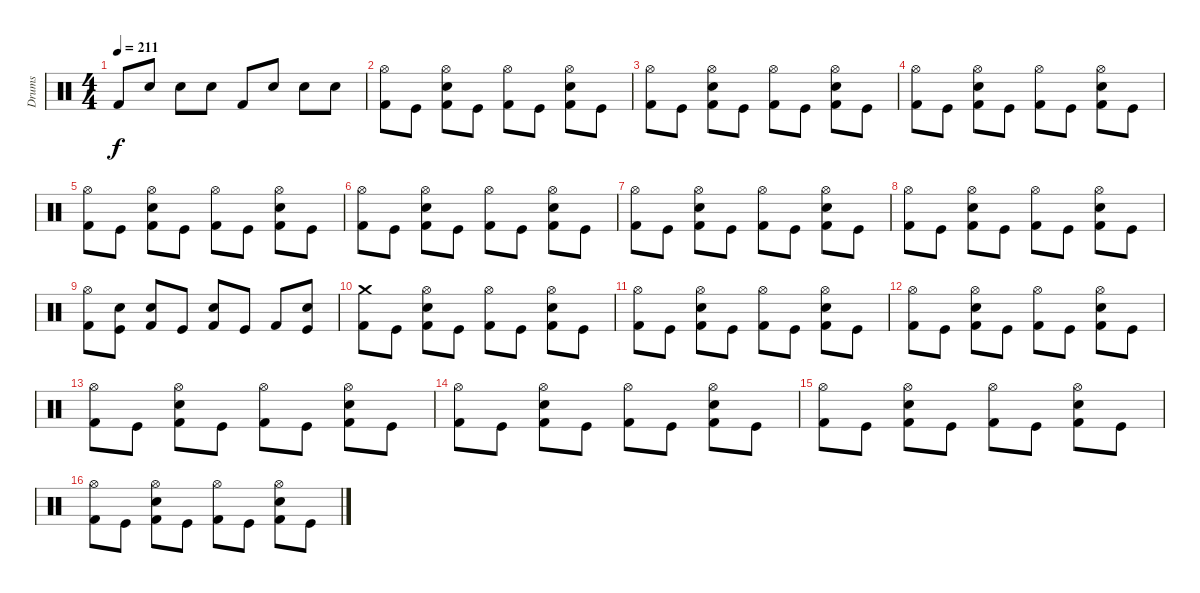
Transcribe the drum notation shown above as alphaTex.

\track ("Drums" "Drums") {instrument percussion}
\staff {score}
\articulation defaults
\ts (4 4)
\tempo 211
\clef neutral
\ks c "Kick (hit) 2".8{dy f} "Snare (hit) 2".8 "Snare (hit) 2".8 "Snare (hit) 2".8 "Kick (hit) 2".8 "Snare (hit) 2".8 "Snare (hit) 2".8 "Snare (hit) 2".8
|
("Kick (hit) 2" "Hi-Hat (open)").8 "Kick (hit)".8 ("Kick (hit) 2" "Snare (hit) 2" "Hi-Hat (open)").8 "Kick (hit)".8 ("Kick (hit) 2" "Hi-Hat (open)").8 "Kick (hit)".8 ("Kick (hit) 2" "Snare (hit) 2" "Hi-Hat (open)").8 "Kick (hit)".8 |
("Kick (hit) 2" "Hi-Hat (open)").8 "Kick (hit)".8 ("Kick (hit) 2" "Snare (hit) 2" "Hi-Hat (open)").8 "Kick (hit)".8 ("Kick (hit) 2" "Hi-Hat (open)").8 "Kick (hit)".8 ("Kick (hit) 2" "Snare (hit) 2" "Hi-Hat (open)").8 "Kick (hit)".8 |
("Kick (hit) 2" "Hi-Hat (open)").8 "Kick (hit)".8 ("Kick (hit) 2" "Snare (hit) 2" "Hi-Hat (open)").8 "Kick (hit)".8 ("Kick (hit) 2" "Hi-Hat (open)").8 "Kick (hit)".8 ("Kick (hit) 2" "Snare (hit) 2" "Hi-Hat (open)").8 "Kick (hit)".8 |
("Kick (hit) 2" "Hi-Hat (open)").8 "Kick (hit)".8 ("Kick (hit) 2" "Snare (hit) 2" "Hi-Hat (open)").8 "Kick (hit)".8 ("Kick (hit) 2" "Hi-Hat (open)").8 "Kick (hit)".8 ("Kick (hit) 2" "Snare (hit) 2" "Hi-Hat (open)").8 "Kick (hit)".8 |
("Kick (hit) 2" "Hi-Hat (open)").8 "Kick (hit)".8 ("Kick (hit) 2" "Snare (hit) 2" "Hi-Hat (open)").8 "Kick (hit)".8 ("Kick (hit) 2" "Hi-Hat (open)").8 "Kick (hit)".8 ("Kick (hit) 2" "Snare (hit) 2" "Hi-Hat (open)").8 "Kick (hit)".8 |
("Kick (hit) 2" "Hi-Hat (open)").8 "Kick (hit)".8 ("Kick (hit) 2" "Snare (hit) 2" "Hi-Hat (open)").8 "Kick (hit)".8 ("Kick (hit) 2" "Hi-Hat (open)").8 "Kick (hit)".8 ("Kick (hit) 2" "Snare (hit) 2" "Hi-Hat (open)").8 "Kick (hit)".8 |
("Kick (hit) 2" "Hi-Hat (open)").8 "Kick (hit)".8 ("Kick (hit) 2" "Snare (hit) 2" "Hi-Hat (open)").8 "Kick (hit)".8 ("Kick (hit) 2" "Hi-Hat (open)").8 "Kick (hit)".8 ("Kick (hit) 2" "Snare (hit) 2" "Hi-Hat (open)").8 "Kick (hit)".8 |
("Kick (hit) 2" "Hi-Hat (open)").8 ("Kick (hit)" "Snare (hit) 2").8 ("Kick (hit) 2" "Snare (hit) 2").8 "Kick (hit)".8 ("Kick (hit) 2" "Snare (hit) 2").8 "Kick (hit)".8 "Kick (hit) 2".8 ("Kick (hit)" "Snare (hit) 2").8 |
("Kick (hit) 2" "Crash medium (hit)").8 "Kick (hit)".8 ("Kick (hit) 2" "Snare (hit) 2" "Hi-Hat (open)").8 "Kick (hit)".8 ("Kick (hit) 2" "Hi-Hat (open)").8 "Kick (hit)".8 ("Kick (hit) 2" "Snare (hit) 2" "Hi-Hat (open)").8 "Kick (hit)".8 |
("Kick (hit) 2" "Hi-Hat (open)").8 "Kick (hit)".8 ("Kick (hit) 2" "Snare (hit) 2" "Hi-Hat (open)").8 "Kick (hit)".8 ("Kick (hit) 2" "Hi-Hat (open)").8 "Kick (hit)".8 ("Kick (hit) 2" "Snare (hit) 2" "Hi-Hat (open)").8 "Kick (hit)".8 |
("Kick (hit) 2" "Hi-Hat (open)").8 "Kick (hit)".8 ("Kick (hit) 2" "Snare (hit) 2" "Hi-Hat (open)").8 "Kick (hit)".8 ("Kick (hit) 2" "Hi-Hat (open)").8 "Kick (hit)".8 ("Kick (hit) 2" "Snare (hit) 2" "Hi-Hat (open)").8 "Kick (hit)".8 |
("Kick (hit) 2" "Hi-Hat (open)").8 "Kick (hit)".8 ("Kick (hit) 2" "Snare (hit) 2" "Hi-Hat (open)").8 "Kick (hit)".8 ("Kick (hit) 2" "Hi-Hat (open)").8 "Kick (hit)".8 ("Kick (hit) 2" "Snare (hit) 2" "Hi-Hat (open)").8 "Kick (hit)".8 |
("Kick (hit) 2" "Hi-Hat (open)").8 "Kick (hit)".8 ("Kick (hit) 2" "Snare (hit) 2" "Hi-Hat (open)").8 "Kick (hit)".8 ("Kick (hit) 2" "Hi-Hat (open)").8 "Kick (hit)".8 ("Kick (hit) 2" "Snare (hit) 2" "Hi-Hat (open)").8 "Kick (hit)".8 |
("Kick (hit) 2" "Hi-Hat (open)").8 "Kick (hit)".8 ("Kick (hit) 2" "Snare (hit) 2" "Hi-Hat (open)").8 "Kick (hit)".8 ("Kick (hit) 2" "Hi-Hat (open)").8 "Kick (hit)".8 ("Kick (hit) 2" "Snare (hit) 2" "Hi-Hat (open)").8 "Kick (hit)".8 |
("Kick (hit) 2" "Hi-Hat (open)").8 "Kick (hit)".8 ("Kick (hit) 2" "Snare (hit) 2" "Hi-Hat (open)").8 "Kick (hit)".8 ("Kick (hit) 2" "Hi-Hat (open)").8 "Kick (hit)".8 ("Kick (hit) 2" "Snare (hit) 2" "Hi-Hat (open)").8 "Kick (hit)".8
